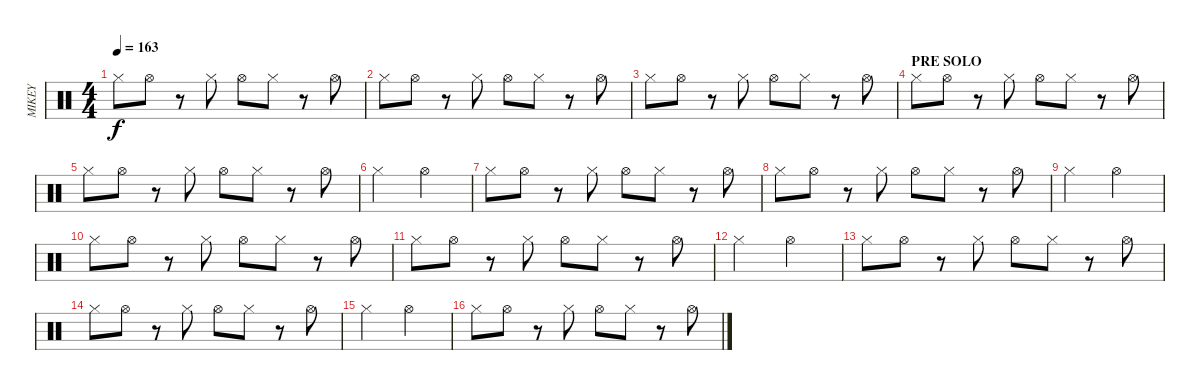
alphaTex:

\track ("MIKEY" "MIKEY") {instrument percussion}
\staff {score}
\articulation defaults
\ts (4 4)
\tempo 163
\clef neutral
\ks c "Hi-Hat (closed)".8{dy f} "Hi-Hat (open)".8
r.8 "Hi-Hat (closed)".8 "Hi-Hat (open)".8 "Hi-Hat (closed)".8 r.8 "Hi-Hat (open)".8 |
"Hi-Hat (closed)".8 "Hi-Hat (open)".8 r.8 "Hi-Hat (closed)".8 "Hi-Hat (open)".8 "Hi-Hat (closed)".8 r.8 "Hi-Hat (open)".8 |
"Hi-Hat (closed)".8 "Hi-Hat (open)".8 r.8 "Hi-Hat (closed)".8 "Hi-Hat (open)".8 "Hi-Hat (closed)".8 r.8 "Hi-Hat (open)".8 |
\section ("" "PRE SOLO")
"Hi-Hat (closed)".8 "Hi-Hat (open)".8 r.8 "Hi-Hat (closed)".8 "Hi-Hat (open)".8 "Hi-Hat (closed)".8 r.8 "Hi-Hat (open)".8 |
"Hi-Hat (closed)".8 "Hi-Hat (open)".8 r.8 "Hi-Hat (closed)".8 "Hi-Hat (open)".8 "Hi-Hat (closed)".8 r.8 "Hi-Hat (open)".8 |
"Hi-Hat (closed)".2 "Hi-Hat (open)".2 |
"Hi-Hat (closed)".8 "Hi-Hat (open)".8 r.8 "Hi-Hat (closed)".8 "Hi-Hat (open)".8 "Hi-Hat (closed)".8 r.8 "Hi-Hat (open)".8 |
"Hi-Hat (closed)".8 "Hi-Hat (open)".8 r.8 "Hi-Hat (closed)".8 "Hi-Hat (open)".8 "Hi-Hat (closed)".8 r.8 "Hi-Hat (open)".8 |
"Hi-Hat (closed)".2 "Hi-Hat (open)".2 |
"Hi-Hat (closed)".8 "Hi-Hat (open)".8 r.8 "Hi-Hat (closed)".8 "Hi-Hat (open)".8 "Hi-Hat (closed)".8 r.8 "Hi-Hat (open)".8 |
"Hi-Hat (closed)".8 "Hi-Hat (open)".8 r.8 "Hi-Hat (closed)".8 "Hi-Hat (open)".8 "Hi-Hat (closed)".8 r.8 "Hi-Hat (open)".8 |
"Hi-Hat (closed)".2 "Hi-Hat (open)".2 |
"Hi-Hat (closed)".8 "Hi-Hat (open)".8 r.8 "Hi-Hat (closed)".8 "Hi-Hat (open)".8 "Hi-Hat (closed)".8 r.8 "Hi-Hat (open)".8 |
"Hi-Hat (closed)".8 "Hi-Hat (open)".8 r.8 "Hi-Hat (closed)".8 "Hi-Hat (open)".8 "Hi-Hat (closed)".8 r.8 "Hi-Hat (open)".8 |
"Hi-Hat (closed)".2 "Hi-Hat (open)".2 |
"Hi-Hat (closed)".8 "Hi-Hat (open)".8 r.8 "Hi-Hat (closed)".8 "Hi-Hat (open)".8 "Hi-Hat (closed)".8 r.8 "Hi-Hat (open)".8
